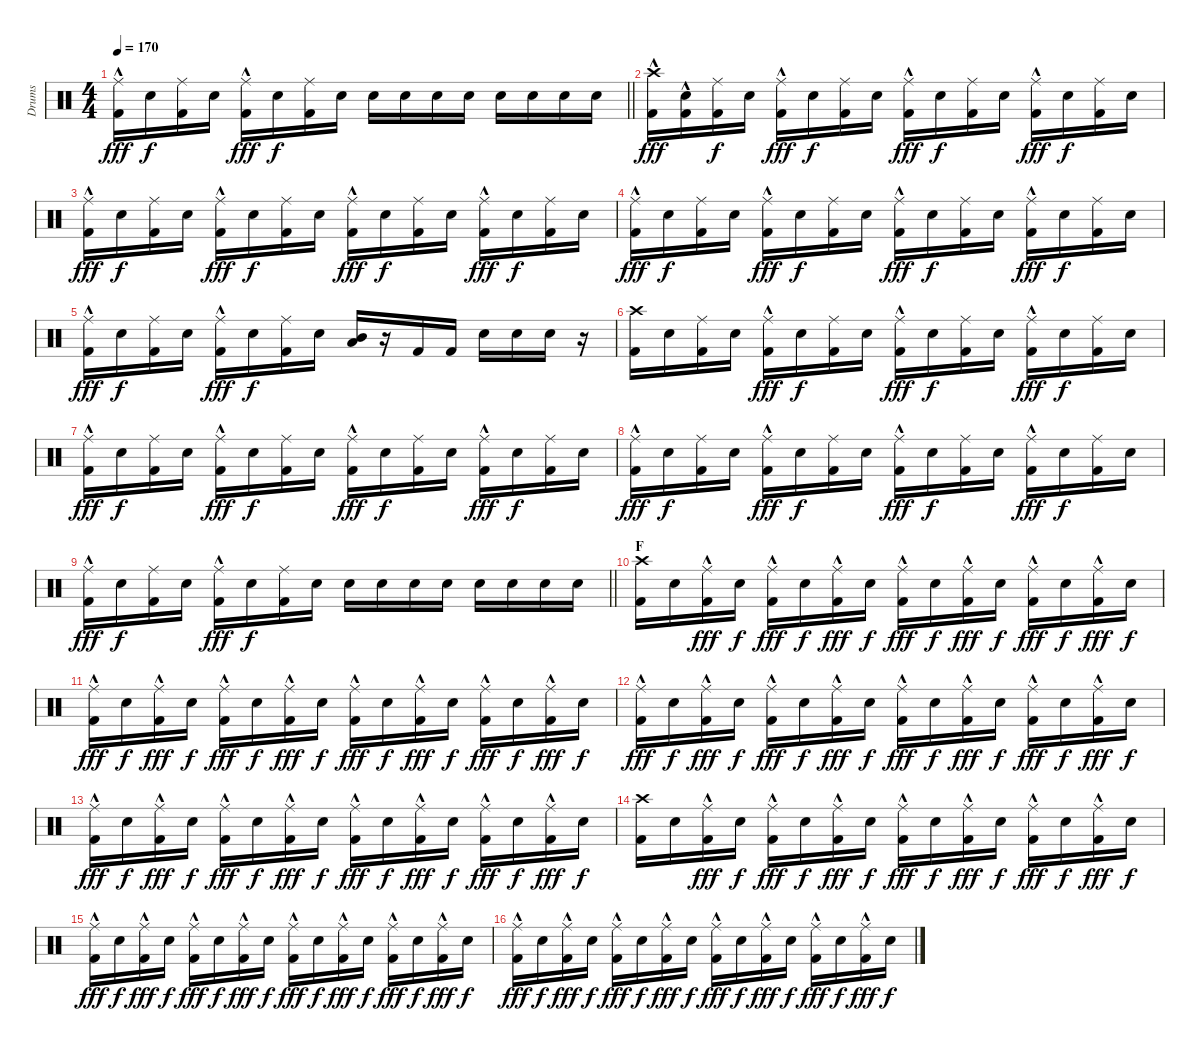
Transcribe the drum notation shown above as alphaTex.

\track ("Drums" "Drums") {instrument percussion}
\staff {score}
\articulation defaults
\ts (4 4)
\tempo 170
\clef neutral
\barLineRight lightlight
\ks c
("Ride (middle)"{hac} "Kick (hit) 2").16{dy fff} "Snare (hit) 2".16{dy f} ("Ride (middle)" "Kick (hit) 2").16 "Snare (hit) 2".16 ("Ride (middle)"{hac} "Kick (hit) 2").16{dy fff} "Snare (hit) 2".16{dy f} ("Ride (middle)" "Kick (hit) 2").16 "Snare (hit) 2".16 "Snare (hit) 2".16 "Snare (hit) 2".16 "Snare (hit) 2".16 "Snare (hit) 2".16 "Snare (hit) 2".16 "Snare (hit) 2".16 "Snare (hit) 2".16 "Snare (hit) 2".16 |
("Crash high (hit)" "Kick (hit) 2"{hac}).16{dy fff} ("Snare (hit) 2" "Kick (hit) 2"{hac}).16 ("Ride (middle)" "Kick (hit) 2").16{dy f} "Snare (hit) 2".16 ("Ride (middle)"{hac} "Kick (hit) 2").16{dy fff} "Snare (hit) 2".16{dy f} ("Ride (middle)" "Kick (hit) 2").16 "Snare (hit) 2".16 ("Ride (middle)"{hac} "Kick (hit) 2").16{dy fff} "Snare (hit) 2".16{dy f} ("Ride (middle)" "Kick (hit) 2").16 "Snare (hit) 2".16 ("Ride (middle)"{hac} "Kick (hit) 2").16{dy fff} "Snare (hit) 2".16{dy f} ("Ride (middle)" "Kick (hit) 2").16 "Snare (hit) 2".16 |
("Ride (middle)"{hac} "Kick (hit) 2").16{dy fff} "Snare (hit) 2".16{dy f} ("Ride (middle)" "Kick (hit) 2").16 "Snare (hit) 2".16 ("Ride (middle)"{hac} "Kick (hit) 2").16{dy fff} "Snare (hit) 2".16{dy f} ("Ride (middle)" "Kick (hit) 2").16 "Snare (hit) 2".16 ("Ride (middle)"{hac} "Kick (hit) 2").16{dy fff} "Snare (hit) 2".16{dy f} ("Ride (middle)" "Kick (hit) 2").16 "Snare (hit) 2".16 ("Ride (middle)"{hac} "Kick (hit) 2").16{dy fff} "Snare (hit) 2".16{dy f} ("Ride (middle)" "Kick (hit) 2").16 "Snare (hit) 2".16 |
("Ride (middle)"{hac} "Kick (hit) 2").16{dy fff} "Snare (hit) 2".16{dy f} ("Ride (middle)" "Kick (hit) 2").16 "Snare (hit) 2".16 ("Ride (middle)"{hac} "Kick (hit) 2").16{dy fff} "Snare (hit) 2".16{dy f} ("Ride (middle)" "Kick (hit) 2").16 "Snare (hit) 2".16 ("Ride (middle)"{hac} "Kick (hit) 2").16{dy fff} "Snare (hit) 2".16{dy f} ("Ride (middle)" "Kick (hit) 2").16 "Snare (hit) 2".16 ("Ride (middle)"{hac} "Kick (hit) 2").16{dy fff} "Snare (hit) 2".16{dy f} ("Ride (middle)" "Kick (hit) 2").16 "Snare (hit) 2".16 |
("Ride (middle)"{hac} "Kick (hit) 2").16{dy fff} "Snare (hit) 2".16{dy f} ("Ride (middle)" "Kick (hit) 2").16 "Snare (hit) 2".16 ("Ride (middle)"{hac} "Kick (hit) 2").16{dy fff} "Snare (hit) 2".16{dy f} ("Ride (middle)" "Kick (hit) 2").16 "Snare (hit) 2".16 ("Low Tom (hit)" "Mid Tom (hit)").16 r.16 "Kick (hit) 2".16 "Kick (hit) 2".16 "Snare (hit) 2".16 "Snare (hit) 2".16 "Snare (hit) 2".16 r.16 |
("Crash high (hit)" "Kick (hit) 2").16 "Snare (hit) 2".16 ("Ride (middle)" "Kick (hit) 2").16 "Snare (hit) 2".16 ("Ride (middle)"{hac} "Kick (hit) 2").16{dy fff} "Snare (hit) 2".16{dy f} ("Ride (middle)" "Kick (hit) 2").16 "Snare (hit) 2".16 ("Ride (middle)"{hac} "Kick (hit) 2").16{dy fff} "Snare (hit) 2".16{dy f} ("Ride (middle)" "Kick (hit) 2").16 "Snare (hit) 2".16 ("Ride (middle)"{hac} "Kick (hit) 2").16{dy fff} "Snare (hit) 2".16{dy f} ("Ride (middle)" "Kick (hit) 2").16 "Snare (hit) 2".16 |
("Ride (middle)"{hac} "Kick (hit) 2").16{dy fff} "Snare (hit) 2".16{dy f} ("Ride (middle)" "Kick (hit) 2").16 "Snare (hit) 2".16 ("Ride (middle)"{hac} "Kick (hit) 2").16{dy fff} "Snare (hit) 2".16{dy f} ("Ride (middle)" "Kick (hit) 2").16 "Snare (hit) 2".16 ("Ride (middle)"{hac} "Kick (hit) 2").16{dy fff} "Snare (hit) 2".16{dy f} ("Ride (middle)" "Kick (hit) 2").16 "Snare (hit) 2".16 ("Ride (middle)"{hac} "Kick (hit) 2").16{dy fff} "Snare (hit) 2".16{dy f} ("Ride (middle)" "Kick (hit) 2").16 "Snare (hit) 2".16 |
("Ride (middle)"{hac} "Kick (hit) 2").16{dy fff} "Snare (hit) 2".16{dy f} ("Ride (middle)" "Kick (hit) 2").16 "Snare (hit) 2".16 ("Ride (middle)"{hac} "Kick (hit) 2").16{dy fff} "Snare (hit) 2".16{dy f} ("Ride (middle)" "Kick (hit) 2").16 "Snare (hit) 2".16 ("Ride (middle)"{hac} "Kick (hit) 2").16{dy fff} "Snare (hit) 2".16{dy f} ("Ride (middle)" "Kick (hit) 2").16 "Snare (hit) 2".16 ("Ride (middle)"{hac} "Kick (hit) 2").16{dy fff} "Snare (hit) 2".16{dy f} ("Ride (middle)" "Kick (hit) 2").16 "Snare (hit) 2".16 |
\barLineRight lightlight
("Ride (middle)"{hac} "Kick (hit) 2").16{dy fff} "Snare (hit) 2".16{dy f} ("Ride (middle)" "Kick (hit) 2").16 "Snare (hit) 2".16 ("Ride (middle)"{hac} "Kick (hit) 2").16{dy fff} "Snare (hit) 2".16{dy f} ("Ride (middle)" "Kick (hit) 2").16 "Snare (hit) 2".16 "Snare (hit) 2".16 "Snare (hit) 2".16 "Snare (hit) 2".16 "Snare (hit) 2".16 "Snare (hit) 2".16 "Snare (hit) 2".16 "Snare (hit) 2".16 "Snare (hit) 2".16 |
\section ("" "F")
("Crash high (hit)" "Kick (hit) 2").16 "Snare (hit) 2".16 ("Ride (middle)"{hac} "Kick (hit) 2").16{dy fff} "Snare (hit) 2".16{dy f} ("Ride (middle)"{hac} "Kick (hit) 2").16{dy fff} "Snare (hit) 2".16{dy f} ("Ride (middle)"{hac} "Kick (hit) 2").16{dy fff} "Snare (hit) 2".16{dy f} ("Ride (middle)"{hac} "Kick (hit) 2").16{dy fff} "Snare (hit) 2".16{dy f} ("Ride (middle)"{hac} "Kick (hit) 2").16{dy fff} "Snare (hit) 2".16{dy f} ("Ride (middle)"{hac} "Kick (hit) 2").16{dy fff} "Snare (hit) 2".16{dy f} ("Ride (middle)"{hac} "Kick (hit) 2").16{dy fff} "Snare (hit) 2".16{dy f} |
("Ride (middle)"{hac} "Kick (hit) 2").16{dy fff} "Snare (hit) 2".16{dy f} ("Ride (middle)"{hac} "Kick (hit) 2").16{dy fff} "Snare (hit) 2".16{dy f} ("Ride (middle)"{hac} "Kick (hit) 2").16{dy fff} "Snare (hit) 2".16{dy f} ("Ride (middle)"{hac} "Kick (hit) 2").16{dy fff} "Snare (hit) 2".16{dy f} ("Ride (middle)"{hac} "Kick (hit) 2").16{dy fff} "Snare (hit) 2".16{dy f} ("Ride (middle)"{hac} "Kick (hit) 2").16{dy fff} "Snare (hit) 2".16{dy f} ("Ride (middle)"{hac} "Kick (hit) 2").16{dy fff} "Snare (hit) 2".16{dy f} ("Ride (middle)"{hac} "Kick (hit) 2").16{dy fff} "Snare (hit) 2".16{dy f} |
("Ride (middle)"{hac} "Kick (hit) 2").16{dy fff} "Snare (hit) 2".16{dy f} ("Ride (middle)"{hac} "Kick (hit) 2").16{dy fff} "Snare (hit) 2".16{dy f} ("Ride (middle)"{hac} "Kick (hit) 2").16{dy fff} "Snare (hit) 2".16{dy f} ("Ride (middle)"{hac} "Kick (hit) 2").16{dy fff} "Snare (hit) 2".16{dy f} ("Ride (middle)"{hac} "Kick (hit) 2").16{dy fff} "Snare (hit) 2".16{dy f} ("Ride (middle)"{hac} "Kick (hit) 2").16{dy fff} "Snare (hit) 2".16{dy f} ("Ride (middle)"{hac} "Kick (hit) 2").16{dy fff} "Snare (hit) 2".16{dy f} ("Ride (middle)"{hac} "Kick (hit) 2").16{dy fff} "Snare (hit) 2".16{dy f} |
("Ride (middle)"{hac} "Kick (hit) 2").16{dy fff} "Snare (hit) 2".16{dy f} ("Ride (middle)"{hac} "Kick (hit) 2").16{dy fff} "Snare (hit) 2".16{dy f} ("Ride (middle)"{hac} "Kick (hit) 2").16{dy fff} "Snare (hit) 2".16{dy f} ("Ride (middle)"{hac} "Kick (hit) 2").16{dy fff} "Snare (hit) 2".16{dy f} ("Ride (middle)"{hac} "Kick (hit) 2").16{dy fff} "Snare (hit) 2".16{dy f} ("Ride (middle)"{hac} "Kick (hit) 2").16{dy fff} "Snare (hit) 2".16{dy f} ("Ride (middle)"{hac} "Kick (hit) 2").16{dy fff} "Snare (hit) 2".16{dy f} ("Ride (middle)"{hac} "Kick (hit) 2").16{dy fff} "Snare (hit) 2".16{dy f} |
("Crash high (hit)" "Kick (hit) 2").16 "Snare (hit) 2".16 ("Ride (middle)"{hac} "Kick (hit) 2").16{dy fff} "Snare (hit) 2".16{dy f} ("Ride (middle)"{hac} "Kick (hit) 2").16{dy fff} "Snare (hit) 2".16{dy f} ("Ride (middle)"{hac} "Kick (hit) 2").16{dy fff} "Snare (hit) 2".16{dy f} ("Ride (middle)"{hac} "Kick (hit) 2").16{dy fff} "Snare (hit) 2".16{dy f} ("Ride (middle)"{hac} "Kick (hit) 2").16{dy fff} "Snare (hit) 2".16{dy f} ("Ride (middle)"{hac} "Kick (hit) 2").16{dy fff} "Snare (hit) 2".16{dy f} ("Ride (middle)"{hac} "Kick (hit) 2").16{dy fff} "Snare (hit) 2".16{dy f} |
("Ride (middle)"{hac} "Kick (hit) 2").16{dy fff} "Snare (hit) 2".16{dy f} ("Ride (middle)"{hac} "Kick (hit) 2").16{dy fff} "Snare (hit) 2".16{dy f} ("Ride (middle)"{hac} "Kick (hit) 2").16{dy fff} "Snare (hit) 2".16{dy f} ("Ride (middle)"{hac} "Kick (hit) 2").16{dy fff} "Snare (hit) 2".16{dy f} ("Ride (middle)"{hac} "Kick (hit) 2").16{dy fff} "Snare (hit) 2".16{dy f} ("Ride (middle)"{hac} "Kick (hit) 2").16{dy fff} "Snare (hit) 2".16{dy f} ("Ride (middle)"{hac} "Kick (hit) 2").16{dy fff} "Snare (hit) 2".16{dy f} ("Ride (middle)"{hac} "Kick (hit) 2").16{dy fff} "Snare (hit) 2".16{dy f} |
("Ride (middle)"{hac} "Kick (hit) 2").16{dy fff} "Snare (hit) 2".16{dy f} ("Ride (middle)"{hac} "Kick (hit) 2").16{dy fff} "Snare (hit) 2".16{dy f} ("Ride (middle)"{hac} "Kick (hit) 2").16{dy fff} "Snare (hit) 2".16{dy f} ("Ride (middle)"{hac} "Kick (hit) 2").16{dy fff} "Snare (hit) 2".16{dy f} ("Ride (middle)"{hac} "Kick (hit) 2").16{dy fff} "Snare (hit) 2".16{dy f} ("Ride (middle)"{hac} "Kick (hit) 2").16{dy fff} "Snare (hit) 2".16{dy f} ("Ride (middle)"{hac} "Kick (hit) 2").16{dy fff} "Snare (hit) 2".16{dy f} ("Ride (middle)"{hac} "Kick (hit) 2").16{dy fff} "Snare (hit) 2".16{dy f}
